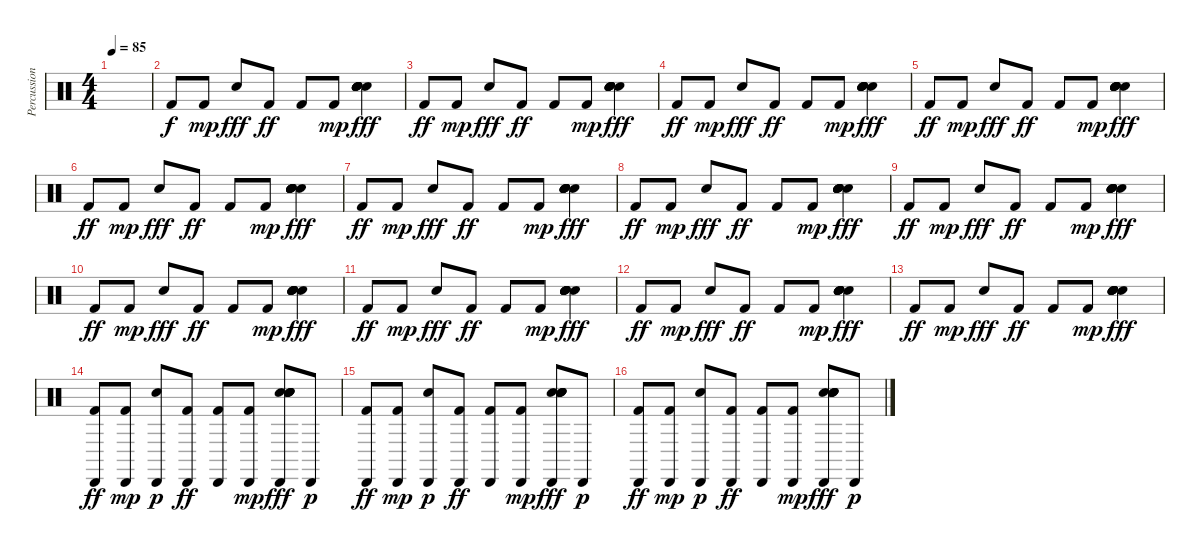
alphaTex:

\track ("Percussion" "Percussion") {instrument percussion}
\staff {score}
\articulation defaults
\ts (4 4)
\tempo 85
\clef neutral
\ks c
|
"Kick (hit) 2".8 "Kick (hit) 2".8{dy mp} "Hand Clap (hit)".8{dy fff} "Kick (hit) 2".8{dy ff} "Kick (hit) 2".8 "Kick (hit) 2".8{dy mp} ("Hand Clap (hit)" "Hand Clap (hit)" "Hand Clap (hit)" "Hand Clap (hit)" "Hand Clap (hit)" "Hand Clap (hit)").4{dy fff} |
"Kick (hit) 2".8{dy ff} "Kick (hit) 2".8{dy mp} "Hand Clap (hit)".8{dy fff} "Kick (hit) 2".8{dy ff} "Kick (hit) 2".8 "Kick (hit) 2".8{dy mp} ("Hand Clap (hit)" "Hand Clap (hit)" "Hand Clap (hit)" "Hand Clap (hit)" "Hand Clap (hit)" "Hand Clap (hit)").4{dy fff} |
"Kick (hit) 2".8{dy ff} "Kick (hit) 2".8{dy mp} "Hand Clap (hit)".8{dy fff} "Kick (hit) 2".8{dy ff} "Kick (hit) 2".8 "Kick (hit) 2".8{dy mp} ("Hand Clap (hit)" "Hand Clap (hit)" "Hand Clap (hit)" "Hand Clap (hit)" "Hand Clap (hit)" "Hand Clap (hit)").4{dy fff} |
"Kick (hit) 2".8{dy ff} "Kick (hit) 2".8{dy mp} "Hand Clap (hit)".8{dy fff} "Kick (hit) 2".8{dy ff} "Kick (hit) 2".8 "Kick (hit) 2".8{dy mp} ("Hand Clap (hit)" "Hand Clap (hit)" "Hand Clap (hit)" "Hand Clap (hit)" "Hand Clap (hit)" "Hand Clap (hit)").4{dy fff} |
"Kick (hit) 2".8{dy ff} "Kick (hit) 2".8{dy mp} "Hand Clap (hit)".8{dy fff} "Kick (hit) 2".8{dy ff} "Kick (hit) 2".8 "Kick (hit) 2".8{dy mp} ("Hand Clap (hit)" "Hand Clap (hit)" "Hand Clap (hit)" "Hand Clap (hit)" "Hand Clap (hit)" "Hand Clap (hit)").4{dy fff} |
"Kick (hit) 2".8{dy ff} "Kick (hit) 2".8{dy mp} "Hand Clap (hit)".8{dy fff} "Kick (hit) 2".8{dy ff} "Kick (hit) 2".8 "Kick (hit) 2".8{dy mp} ("Hand Clap (hit)" "Hand Clap (hit)" "Hand Clap (hit)" "Hand Clap (hit)" "Hand Clap (hit)" "Hand Clap (hit)").4{dy fff} |
"Kick (hit) 2".8{dy ff} "Kick (hit) 2".8{dy mp} "Hand Clap (hit)".8{dy fff} "Kick (hit) 2".8{dy ff} "Kick (hit) 2".8 "Kick (hit) 2".8{dy mp} ("Hand Clap (hit)" "Hand Clap (hit)" "Hand Clap (hit)" "Hand Clap (hit)" "Hand Clap (hit)" "Hand Clap (hit)").4{dy fff} |
"Kick (hit) 2".8{dy ff} "Kick (hit) 2".8{dy mp} "Hand Clap (hit)".8{dy fff} "Kick (hit) 2".8{dy ff} "Kick (hit) 2".8 "Kick (hit) 2".8{dy mp} ("Hand Clap (hit)" "Hand Clap (hit)" "Hand Clap (hit)" "Hand Clap (hit)" "Hand Clap (hit)" "Hand Clap (hit)").4{dy fff} |
"Kick (hit) 2".8{dy ff} "Kick (hit) 2".8{dy mp} "Hand Clap (hit)".8{dy fff} "Kick (hit) 2".8{dy ff} "Kick (hit) 2".8 "Kick (hit) 2".8{dy mp} ("Hand Clap (hit)" "Hand Clap (hit)" "Hand Clap (hit)" "Hand Clap (hit)" "Hand Clap (hit)" "Hand Clap (hit)").4{dy fff} |
"Kick (hit) 2".8{dy ff} "Kick (hit) 2".8{dy mp} "Hand Clap (hit)".8{dy fff} "Kick (hit) 2".8{dy ff} "Kick (hit) 2".8 "Kick (hit) 2".8{dy mp} ("Hand Clap (hit)" "Hand Clap (hit)" "Hand Clap (hit)" "Hand Clap (hit)" "Hand Clap (hit)" "Hand Clap (hit)").4{dy fff} |
"Kick (hit) 2".8{dy ff} "Kick (hit) 2".8{dy mp} "Hand Clap (hit)".8{dy fff} "Kick (hit) 2".8{dy ff} "Kick (hit) 2".8 "Kick (hit) 2".8{dy mp} ("Hand Clap (hit)" "Hand Clap (hit)" "Hand Clap (hit)" "Hand Clap (hit)" "Hand Clap (hit)" "Hand Clap (hit)").4{dy fff} |
"Kick (hit) 2".8{dy ff} "Kick (hit) 2".8{dy mp} "Hand Clap (hit)".8{dy fff} "Kick (hit) 2".8{dy ff} "Kick (hit) 2".8 "Kick (hit) 2".8{dy mp} ("Hand Clap (hit)" "Hand Clap (hit)" "Hand Clap (hit)" "Hand Clap (hit)" "Hand Clap (hit)" "Hand Clap (hit)").4{dy fff} |
("Cabasa (hit)" "Kick (hit) 2").8{dy ff} ("Cabasa (hit)" "Kick (hit) 2").8{dy mp} ("Hand Clap (hit)" "Cabasa (hit)").8{dy p} ("Cabasa (hit)" "Kick (hit) 2").8{dy ff} ("Cabasa (hit)" "Kick (hit) 2").8 ("Cabasa (hit)" "Kick (hit) 2").8{dy mp} ("Hand Clap (hit)" "Hand Clap (hit)" "Hand Clap (hit)" "Cabasa (hit)" "Hand Clap (hit)" "Hand Clap (hit)").8{dy fff} "Cabasa (hit)".8{dy p} |
("Cabasa (hit)" "Kick (hit) 2").8{dy ff} ("Cabasa (hit)" "Kick (hit) 2").8{dy mp} ("Hand Clap (hit)" "Cabasa (hit)").8{dy p} ("Cabasa (hit)" "Kick (hit) 2").8{dy ff} ("Cabasa (hit)" "Kick (hit) 2").8 ("Cabasa (hit)" "Kick (hit) 2").8{dy mp} ("Hand Clap (hit)" "Hand Clap (hit)" "Hand Clap (hit)" "Cabasa (hit)" "Hand Clap (hit)" "Hand Clap (hit)").8{dy fff} "Cabasa (hit)".8{dy p} |
("Cabasa (hit)" "Kick (hit) 2").8{dy ff} ("Cabasa (hit)" "Kick (hit) 2").8{dy mp} ("Hand Clap (hit)" "Cabasa (hit)").8{dy p} ("Cabasa (hit)" "Kick (hit) 2").8{dy ff} ("Cabasa (hit)" "Kick (hit) 2").8 ("Cabasa (hit)" "Kick (hit) 2").8{dy mp} ("Hand Clap (hit)" "Hand Clap (hit)" "Hand Clap (hit)" "Cabasa (hit)" "Hand Clap (hit)" "Hand Clap (hit)").8{dy fff} "Cabasa (hit)".8{dy p}
